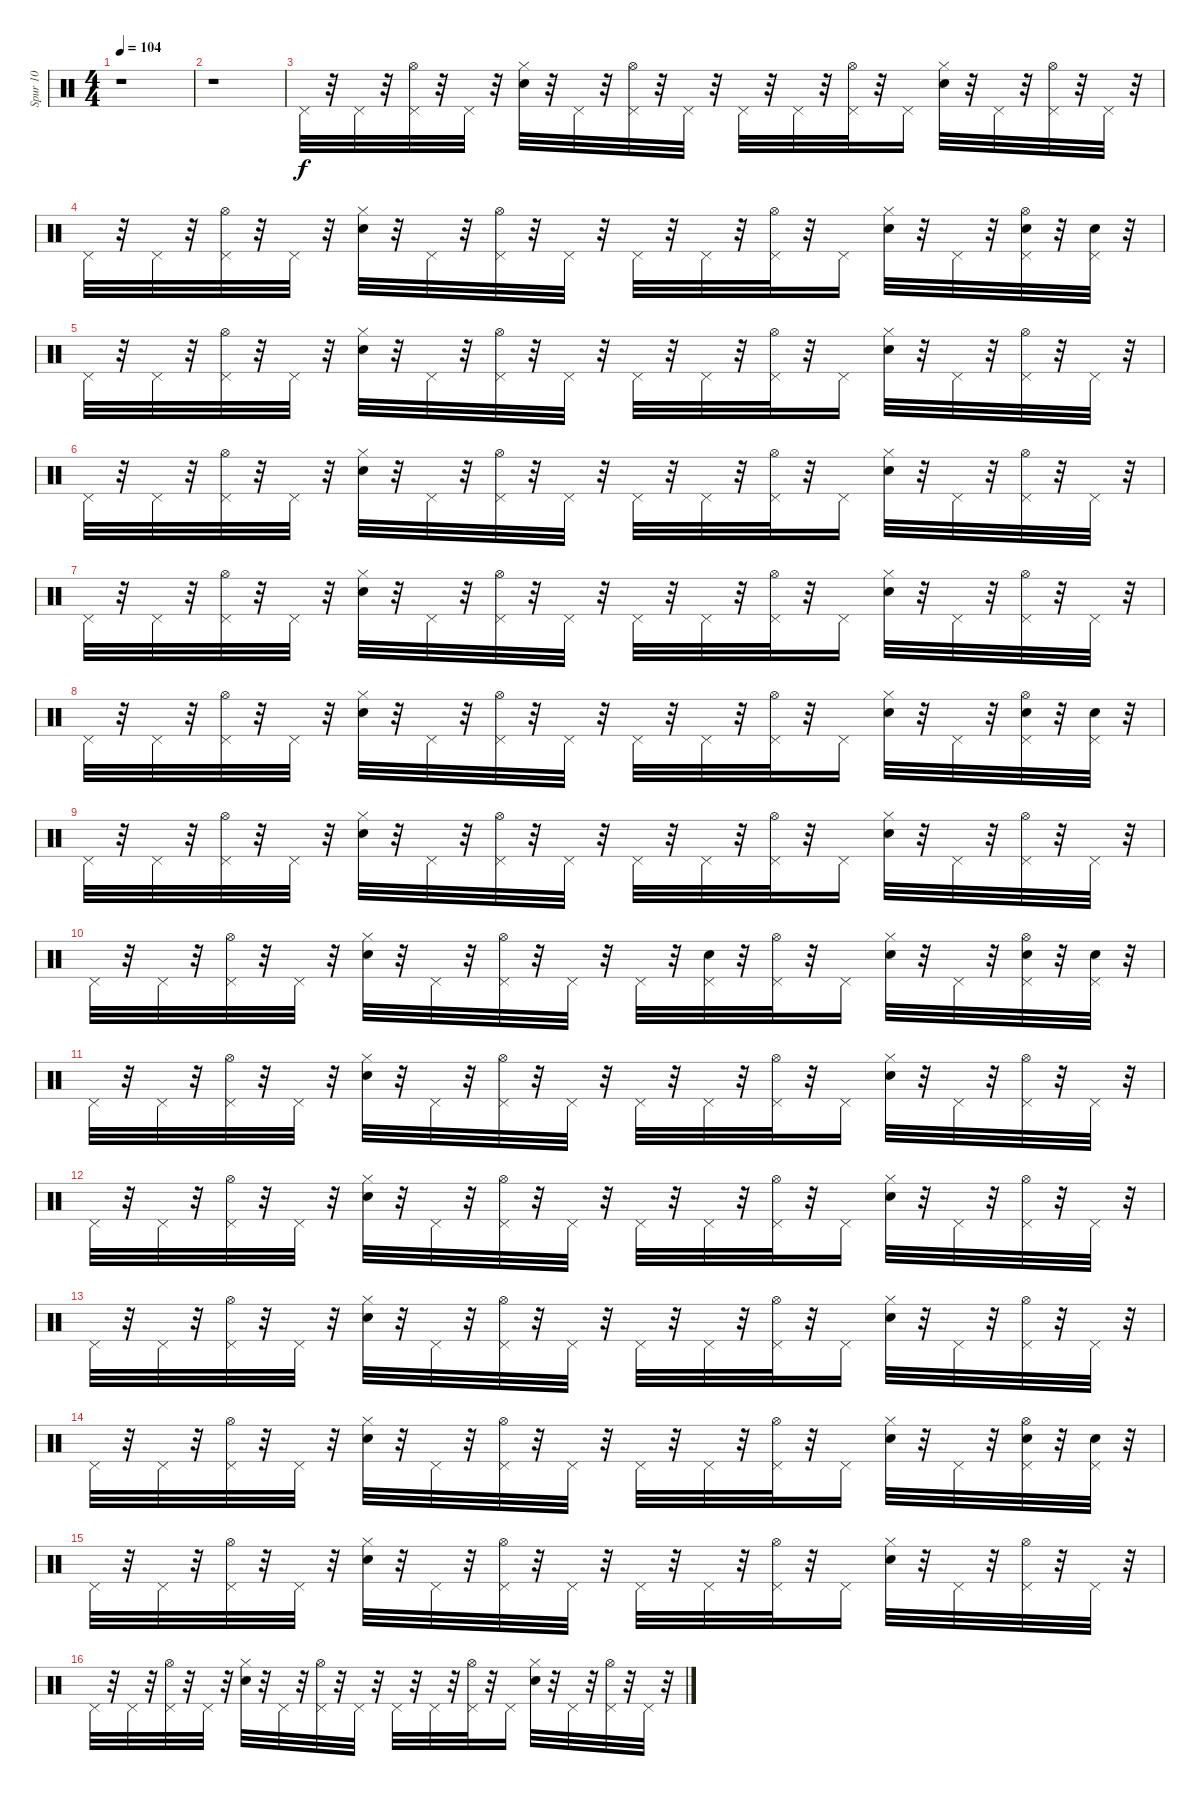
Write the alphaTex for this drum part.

\track ("Spur 10" "Spur 10") {instrument percussion}
\staff {score}
\articulation defaults
\ts (4 4)
\tempo 104
\clef neutral
\ks c
r.1{dy f} |
r.1 |
"Pedal Hi-Hat (hit)".32 r.32 "Pedal Hi-Hat (hit)".32 r.32 ("Pedal Hi-Hat (hit)" "Hi-Hat (open)").32 r.32 "Pedal Hi-Hat (hit)".32 r.32 ("Snare (hit) 2" "Hi-Hat (closed)").32 r.32 "Pedal Hi-Hat (hit)".32 r.32 ("Pedal Hi-Hat (hit)" "Hi-Hat (open)").32 r.32 "Pedal Hi-Hat (hit)".32 r.32 "Pedal Hi-Hat (hit)".32 r.32 "Pedal Hi-Hat (hit)".32 r.32 ("Pedal Hi-Hat (hit)" "Hi-Hat (open)").32 r.32 "Pedal Hi-Hat (hit)".16 ("Snare (hit) 2" "Hi-Hat (closed)").32 r.32 "Pedal Hi-Hat (hit)".32 r.32 ("Pedal Hi-Hat (hit)" "Hi-Hat (open)").32 r.32 "Pedal Hi-Hat (hit)".32 r.32 |
"Pedal Hi-Hat (hit)".32 r.32 "Pedal Hi-Hat (hit)".32 r.32 ("Pedal Hi-Hat (hit)" "Hi-Hat (open)").32 r.32 "Pedal Hi-Hat (hit)".32 r.32 ("Snare (hit) 2" "Hi-Hat (closed)").32 r.32 "Pedal Hi-Hat (hit)".32 r.32 ("Pedal Hi-Hat (hit)" "Hi-Hat (open)").32 r.32 "Pedal Hi-Hat (hit)".32 r.32 "Pedal Hi-Hat (hit)".32 r.32 "Pedal Hi-Hat (hit)".32 r.32 ("Pedal Hi-Hat (hit)" "Hi-Hat (open)").32 r.32 "Pedal Hi-Hat (hit)".16 ("Snare (hit) 2" "Hi-Hat (closed)").32 r.32 "Pedal Hi-Hat (hit)".32 r.32 ("Snare (hit) 2" "Pedal Hi-Hat (hit)" "Hi-Hat (open)").32 r.32 ("Snare (hit) 2" "Pedal Hi-Hat (hit)").32 r.32 |
"Pedal Hi-Hat (hit)".32 r.32 "Pedal Hi-Hat (hit)".32 r.32 ("Pedal Hi-Hat (hit)" "Hi-Hat (open)").32 r.32 "Pedal Hi-Hat (hit)".32 r.32 ("Snare (hit) 2" "Hi-Hat (closed)").32 r.32 "Pedal Hi-Hat (hit)".32 r.32 ("Pedal Hi-Hat (hit)" "Hi-Hat (open)").32 r.32 "Pedal Hi-Hat (hit)".32 r.32 "Pedal Hi-Hat (hit)".32 r.32 "Pedal Hi-Hat (hit)".32 r.32 ("Pedal Hi-Hat (hit)" "Hi-Hat (open)").32 r.32 "Pedal Hi-Hat (hit)".16 ("Snare (hit) 2" "Hi-Hat (closed)").32 r.32 "Pedal Hi-Hat (hit)".32 r.32 ("Pedal Hi-Hat (hit)" "Hi-Hat (open)").32 r.32 "Pedal Hi-Hat (hit)".32 r.32 |
"Pedal Hi-Hat (hit)".32 r.32 "Pedal Hi-Hat (hit)".32 r.32 ("Pedal Hi-Hat (hit)" "Hi-Hat (open)").32 r.32 "Pedal Hi-Hat (hit)".32 r.32 ("Snare (hit) 2" "Hi-Hat (closed)").32 r.32 "Pedal Hi-Hat (hit)".32 r.32 ("Pedal Hi-Hat (hit)" "Hi-Hat (open)").32 r.32 "Pedal Hi-Hat (hit)".32 r.32 "Pedal Hi-Hat (hit)".32 r.32 "Pedal Hi-Hat (hit)".32 r.32 ("Pedal Hi-Hat (hit)" "Hi-Hat (open)").32 r.32 "Pedal Hi-Hat (hit)".16 ("Snare (hit) 2" "Hi-Hat (closed)").32 r.32 "Pedal Hi-Hat (hit)".32 r.32 ("Pedal Hi-Hat (hit)" "Hi-Hat (open)").32 r.32 "Pedal Hi-Hat (hit)".32 r.32 |
"Pedal Hi-Hat (hit)".32 r.32 "Pedal Hi-Hat (hit)".32 r.32 ("Pedal Hi-Hat (hit)" "Hi-Hat (open)").32 r.32 "Pedal Hi-Hat (hit)".32 r.32 ("Snare (hit) 2" "Hi-Hat (closed)").32 r.32 "Pedal Hi-Hat (hit)".32 r.32 ("Pedal Hi-Hat (hit)" "Hi-Hat (open)").32 r.32 "Pedal Hi-Hat (hit)".32 r.32 "Pedal Hi-Hat (hit)".32 r.32 "Pedal Hi-Hat (hit)".32 r.32 ("Pedal Hi-Hat (hit)" "Hi-Hat (open)").32 r.32 "Pedal Hi-Hat (hit)".16 ("Snare (hit) 2" "Hi-Hat (closed)").32 r.32 "Pedal Hi-Hat (hit)".32 r.32 ("Pedal Hi-Hat (hit)" "Hi-Hat (open)").32 r.32 "Pedal Hi-Hat (hit)".32 r.32 |
"Pedal Hi-Hat (hit)".32 r.32 "Pedal Hi-Hat (hit)".32 r.32 ("Pedal Hi-Hat (hit)" "Hi-Hat (open)").32 r.32 "Pedal Hi-Hat (hit)".32 r.32 ("Snare (hit) 2" "Hi-Hat (closed)").32 r.32 "Pedal Hi-Hat (hit)".32 r.32 ("Pedal Hi-Hat (hit)" "Hi-Hat (open)").32 r.32 "Pedal Hi-Hat (hit)".32 r.32 "Pedal Hi-Hat (hit)".32 r.32 "Pedal Hi-Hat (hit)".32 r.32 ("Pedal Hi-Hat (hit)" "Hi-Hat (open)").32 r.32 "Pedal Hi-Hat (hit)".16 ("Snare (hit) 2" "Hi-Hat (closed)").32 r.32 "Pedal Hi-Hat (hit)".32 r.32 ("Snare (hit) 2" "Pedal Hi-Hat (hit)" "Hi-Hat (open)").32 r.32 ("Snare (hit) 2" "Pedal Hi-Hat (hit)").32 r.32 |
"Pedal Hi-Hat (hit)".32 r.32 "Pedal Hi-Hat (hit)".32 r.32 ("Pedal Hi-Hat (hit)" "Hi-Hat (open)").32 r.32 "Pedal Hi-Hat (hit)".32 r.32 ("Snare (hit) 2" "Hi-Hat (closed)").32 r.32 "Pedal Hi-Hat (hit)".32 r.32 ("Pedal Hi-Hat (hit)" "Hi-Hat (open)").32 r.32 "Pedal Hi-Hat (hit)".32 r.32 "Pedal Hi-Hat (hit)".32 r.32 "Pedal Hi-Hat (hit)".32 r.32 ("Pedal Hi-Hat (hit)" "Hi-Hat (open)").32 r.32 "Pedal Hi-Hat (hit)".16 ("Snare (hit) 2" "Hi-Hat (closed)").32 r.32 "Pedal Hi-Hat (hit)".32 r.32 ("Pedal Hi-Hat (hit)" "Hi-Hat (open)").32 r.32 "Pedal Hi-Hat (hit)".32 r.32 |
"Pedal Hi-Hat (hit)".32 r.32 "Pedal Hi-Hat (hit)".32 r.32 ("Pedal Hi-Hat (hit)" "Hi-Hat (open)").32 r.32 "Pedal Hi-Hat (hit)".32 r.32 ("Snare (hit) 2" "Hi-Hat (closed)").32 r.32 "Pedal Hi-Hat (hit)".32 r.32 ("Pedal Hi-Hat (hit)" "Hi-Hat (open)").32 r.32 "Pedal Hi-Hat (hit)".32 r.32 "Pedal Hi-Hat (hit)".32 r.32 ("Pedal Hi-Hat (hit)" "Snare (hit) 2").32 r.32 ("Pedal Hi-Hat (hit)" "Hi-Hat (open)").32 r.32 "Pedal Hi-Hat (hit)".16 ("Snare (hit) 2" "Hi-Hat (closed)").32 r.32 "Pedal Hi-Hat (hit)".32 r.32 ("Snare (hit) 2" "Pedal Hi-Hat (hit)" "Hi-Hat (open)").32 r.32 ("Snare (hit) 2" "Pedal Hi-Hat (hit)").32 r.32 |
"Pedal Hi-Hat (hit)".32 r.32 "Pedal Hi-Hat (hit)".32 r.32 ("Pedal Hi-Hat (hit)" "Hi-Hat (open)").32 r.32 "Pedal Hi-Hat (hit)".32 r.32 ("Snare (hit) 2" "Hi-Hat (closed)").32 r.32 "Pedal Hi-Hat (hit)".32 r.32 ("Pedal Hi-Hat (hit)" "Hi-Hat (open)").32 r.32 "Pedal Hi-Hat (hit)".32 r.32 "Pedal Hi-Hat (hit)".32 r.32 "Pedal Hi-Hat (hit)".32 r.32 ("Pedal Hi-Hat (hit)" "Hi-Hat (open)").32 r.32 "Pedal Hi-Hat (hit)".16 ("Snare (hit) 2" "Hi-Hat (closed)").32 r.32 "Pedal Hi-Hat (hit)".32 r.32 ("Pedal Hi-Hat (hit)" "Hi-Hat (open)").32 r.32 "Pedal Hi-Hat (hit)".32 r.32 |
"Pedal Hi-Hat (hit)".32 r.32 "Pedal Hi-Hat (hit)".32 r.32 ("Pedal Hi-Hat (hit)" "Hi-Hat (open)").32 r.32 "Pedal Hi-Hat (hit)".32 r.32 ("Snare (hit) 2" "Hi-Hat (closed)").32 r.32 "Pedal Hi-Hat (hit)".32 r.32 ("Pedal Hi-Hat (hit)" "Hi-Hat (open)").32 r.32 "Pedal Hi-Hat (hit)".32 r.32 "Pedal Hi-Hat (hit)".32 r.32 "Pedal Hi-Hat (hit)".32 r.32 ("Pedal Hi-Hat (hit)" "Hi-Hat (open)").32 r.32 "Pedal Hi-Hat (hit)".16 ("Snare (hit) 2" "Hi-Hat (closed)").32 r.32 "Pedal Hi-Hat (hit)".32 r.32 ("Pedal Hi-Hat (hit)" "Hi-Hat (open)").32 r.32 "Pedal Hi-Hat (hit)".32 r.32 |
"Pedal Hi-Hat (hit)".32 r.32 "Pedal Hi-Hat (hit)".32 r.32 ("Pedal Hi-Hat (hit)" "Hi-Hat (open)").32 r.32 "Pedal Hi-Hat (hit)".32 r.32 ("Snare (hit) 2" "Hi-Hat (closed)").32 r.32 "Pedal Hi-Hat (hit)".32 r.32 ("Pedal Hi-Hat (hit)" "Hi-Hat (open)").32 r.32 "Pedal Hi-Hat (hit)".32 r.32 "Pedal Hi-Hat (hit)".32 r.32 "Pedal Hi-Hat (hit)".32 r.32 ("Pedal Hi-Hat (hit)" "Hi-Hat (open)").32 r.32 "Pedal Hi-Hat (hit)".16 ("Snare (hit) 2" "Hi-Hat (closed)").32 r.32 "Pedal Hi-Hat (hit)".32 r.32 ("Pedal Hi-Hat (hit)" "Hi-Hat (open)").32 r.32 "Pedal Hi-Hat (hit)".32 r.32 |
"Pedal Hi-Hat (hit)".32 r.32 "Pedal Hi-Hat (hit)".32 r.32 ("Pedal Hi-Hat (hit)" "Hi-Hat (open)").32 r.32 "Pedal Hi-Hat (hit)".32 r.32 ("Snare (hit) 2" "Hi-Hat (closed)").32 r.32 "Pedal Hi-Hat (hit)".32 r.32 ("Pedal Hi-Hat (hit)" "Hi-Hat (open)").32 r.32 "Pedal Hi-Hat (hit)".32 r.32 "Pedal Hi-Hat (hit)".32 r.32 "Pedal Hi-Hat (hit)".32 r.32 ("Pedal Hi-Hat (hit)" "Hi-Hat (open)").32 r.32 "Pedal Hi-Hat (hit)".16 ("Snare (hit) 2" "Hi-Hat (closed)").32 r.32 "Pedal Hi-Hat (hit)".32 r.32 ("Snare (hit) 2" "Pedal Hi-Hat (hit)" "Hi-Hat (open)").32 r.32 ("Snare (hit) 2" "Pedal Hi-Hat (hit)").32 r.32 |
"Pedal Hi-Hat (hit)".32 r.32 "Pedal Hi-Hat (hit)".32 r.32 ("Pedal Hi-Hat (hit)" "Hi-Hat (open)").32 r.32 "Pedal Hi-Hat (hit)".32 r.32 ("Snare (hit) 2" "Hi-Hat (closed)").32 r.32 "Pedal Hi-Hat (hit)".32 r.32 ("Pedal Hi-Hat (hit)" "Hi-Hat (open)").32 r.32 "Pedal Hi-Hat (hit)".32 r.32 "Pedal Hi-Hat (hit)".32 r.32 "Pedal Hi-Hat (hit)".32 r.32 ("Pedal Hi-Hat (hit)" "Hi-Hat (open)").32 r.32 "Pedal Hi-Hat (hit)".16 ("Snare (hit) 2" "Hi-Hat (closed)").32 r.32 "Pedal Hi-Hat (hit)".32 r.32 ("Pedal Hi-Hat (hit)" "Hi-Hat (open)").32 r.32 "Pedal Hi-Hat (hit)".32 r.32 |
"Pedal Hi-Hat (hit)".32 r.32 "Pedal Hi-Hat (hit)".32 r.32 ("Pedal Hi-Hat (hit)" "Hi-Hat (open)").32 r.32 "Pedal Hi-Hat (hit)".32 r.32 ("Snare (hit) 2" "Hi-Hat (closed)").32 r.32 "Pedal Hi-Hat (hit)".32 r.32 ("Pedal Hi-Hat (hit)" "Hi-Hat (open)").32 r.32 "Pedal Hi-Hat (hit)".32 r.32 "Pedal Hi-Hat (hit)".32 r.32 "Pedal Hi-Hat (hit)".32 r.32 ("Pedal Hi-Hat (hit)" "Hi-Hat (open)").32 r.32 "Pedal Hi-Hat (hit)".16 ("Snare (hit) 2" "Hi-Hat (closed)").32 r.32 "Pedal Hi-Hat (hit)".32 r.32 ("Pedal Hi-Hat (hit)" "Hi-Hat (open)").32 r.32 "Pedal Hi-Hat (hit)".32 r.32
